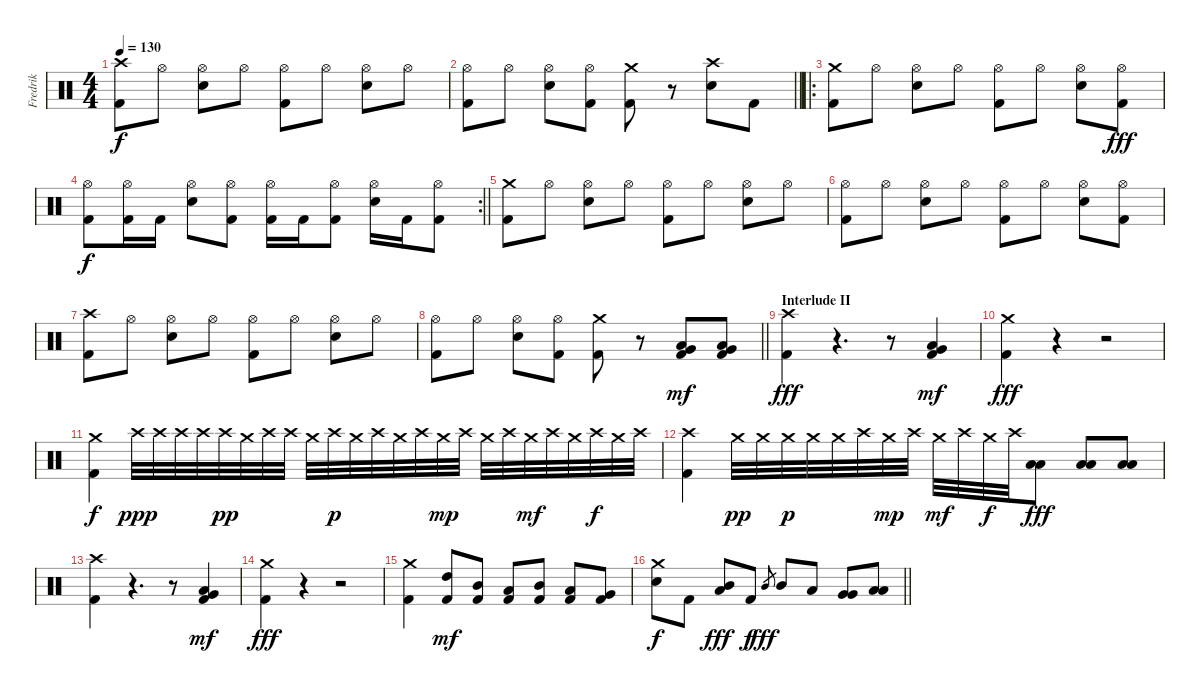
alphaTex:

\track ("Fredrik" "Fredrik") {instrument percussion}
\staff {score}
\articulation defaults
\ts (4 4)
\tempo 130
\clef neutral
\ks c
("Crash high (hit)" "Kick (hit) 2").8{dy f} "Hi-Hat (open)".8 ("Hi-Hat (open)" "Electric Snare (hit)").8 "Hi-Hat (open)".8 ("Hi-Hat (open)" "Kick (hit) 2").8 "Hi-Hat (open)".8 ("Hi-Hat (open)" "Electric Snare (hit)").8 "Hi-Hat (open)".8 |
\barLineRight lightlight
("Hi-Hat (open)" "Kick (hit) 2").8 "Hi-Hat (open)".8 ("Hi-Hat (open)" "Electric Snare (hit)").8 ("Hi-Hat (open)" "Kick (hit) 2").8 ("Crash medium (hit)" "Kick (hit) 2").8 r.8 ("Crash high (hit)" "Electric Snare (hit)").8 "Kick (hit) 2".8 |
\ro
("Crash medium (hit)" "Kick (hit) 2").8 "Hi-Hat (open)".8 ("Hi-Hat (open)" "Electric Snare (hit)").8 "Hi-Hat (open)".8 ("Hi-Hat (open)" "Kick (hit) 2").8 "Hi-Hat (open)".8 ("Hi-Hat (open)" "Electric Snare (hit)").8 ("Hi-Hat (open)" "Kick (hit) 2").8{dy fff} |
\rc 2
\barLineRight lightlight
("Hi-Hat (open)" "Kick (hit) 2").8{dy f} ("Hi-Hat (open)" "Kick (hit) 2").16 "Kick (hit) 2".16 ("Hi-Hat (open)" "Electric Snare (hit)").8 ("Hi-Hat (open)" "Kick (hit) 2").8 ("Hi-Hat (open)" "Kick (hit) 2").16 "Kick (hit) 2".16 ("Hi-Hat (open)" "Kick (hit) 2").8 ("Hi-Hat (open)" "Electric Snare (hit)").16 "Kick (hit) 2".16 ("Hi-Hat (open)" "Kick (hit) 2").8 |
("Crash medium (hit)" "Kick (hit) 2").8 "Hi-Hat (open)".8 ("Hi-Hat (open)" "Electric Snare (hit)").8 "Hi-Hat (open)".8 ("Hi-Hat (open)" "Kick (hit) 2").8 "Hi-Hat (open)".8 ("Hi-Hat (open)" "Electric Snare (hit)").8 "Hi-Hat (open)".8 |
("Hi-Hat (open)" "Kick (hit) 2").8 "Hi-Hat (open)".8 ("Hi-Hat (open)" "Electric Snare (hit)").8 "Hi-Hat (open)".8 ("Hi-Hat (open)" "Kick (hit) 2").8 "Hi-Hat (open)".8 ("Hi-Hat (open)" "Electric Snare (hit)").8 ("Hi-Hat (open)" "Kick (hit) 2").8 |
("Crash high (hit)" "Kick (hit) 2").8 "Hi-Hat (open)".8 ("Hi-Hat (open)" "Electric Snare (hit)").8 "Hi-Hat (open)".8 ("Hi-Hat (open)" "Kick (hit) 2").8 "Hi-Hat (open)".8 ("Hi-Hat (open)" "Electric Snare (hit)").8 "Hi-Hat (open)".8 |
\barLineRight lightlight
("Hi-Hat (open)" "Kick (hit) 2").8 "Hi-Hat (open)".8 ("Hi-Hat (open)" "Electric Snare (hit)").8 ("Hi-Hat (open)" "Kick (hit) 2").8 ("Crash medium (hit)" "Kick (hit) 2").8 r.8 ("Low Tom (hit)" "Very Low Tom (hit)" "Kick (hit) 2").8{dy mf} ("Very Low Tom (hit)" "Low Floor Tom (hit)" "Kick (hit) 2").8 |
\section ("" "Interlude II")
("Crash high (hit)" "Kick (hit) 2").4{dy fff} r.4{d} r.8 ("Very Low Tom (hit)" "Low Floor Tom (hit)" "Kick (hit) 2").4{dy mf} |
("Crash medium (hit)" "Kick (hit) 2").4{dy fff} r.4 r.2 |
("Crash medium (hit)" "Kick (hit) 2").4{dy f} "Crash high (hit)".32{dy ppp} "Crash high (hit)".32 "Crash high (hit)".32 "Crash high (hit)".32 "Crash high (hit)".32{dy pp} "Crash medium (hit)".32 "Crash high (hit)".32 "Crash high (hit)".32 "Crash medium (hit)".32 "Crash high (hit)".32{dy p} "Crash medium (hit)".32 "Crash high (hit)".32 "Crash medium (hit)".32 "Crash high (hit)".32 "Crash medium (hit)".32{dy mp} "Crash high (hit)".32 "Crash medium (hit)".32 "Crash high (hit)".32 "Crash medium (hit)".32{dy mf} "Crash high (hit)".32 "Crash medium (hit)".32 "Crash high (hit)".32{dy f} "Crash medium (hit)".32 "Crash high (hit)".32 |
("Crash high (hit)" "Kick (hit) 2").4 "Crash medium (hit)".32{dy pp} "Crash medium (hit)".32 "Crash medium (hit)".32{dy p} "Crash medium (hit)".32 "Crash medium (hit)".32 "Crash high (hit)".32 "Crash medium (hit)".32{dy mp} "Crash high (hit)".32 "Crash medium (hit)".32{dy mf} "Crash high (hit)".32 "Crash medium (hit)".32{dy f} "Crash high (hit)".32 ("Low Tom (hit)" "Low Floor Tom (hit)").8{dy fff} ("Low Tom (hit)" "Low Floor Tom (hit)").8 ("Low Tom (hit)" "Low Floor Tom (hit)").8 |
("Crash high (hit)" "Kick (hit) 2").4 r.4{d} r.8 ("Very Low Tom (hit)" "Low Floor Tom (hit)" "Kick (hit) 2").4{dy mf} |
("Crash medium (hit)" "Kick (hit) 2").4{dy fff} r.4 r.2 |
("Crash medium (hit)" "Kick (hit) 2").4 ("High Tom (hit)" "Kick (hit) 2").8{dy mf} ("Mid Tom (hit)" "Kick (hit) 2").8 ("Low Tom (hit)" "Kick (hit) 2").8 ("Mid Tom (hit)" "Kick (hit) 2").8 ("Low Tom (hit)" "Kick (hit) 2").8 ("Very Low Tom (hit)" "Kick (hit) 2").8 |
\barLineRight lightlight
("Crash medium (hit)" "Electric Snare (hit)").8{dy f} "Kick (hit) 2".8 ("Mid Tom (hit)" "Low Tom (hit)").8{dy fff} "Kick (hit) 2".8{dy f} "Mid Tom (hit)".8{gr dy fff} "Mid Tom (hit)".8 "Low Tom (hit)".8 ("Very Low Tom (hit)" "Very Low Tom (hit)").8 ("Low Floor Tom (hit)" "Low Floor Tom (hit)").8
